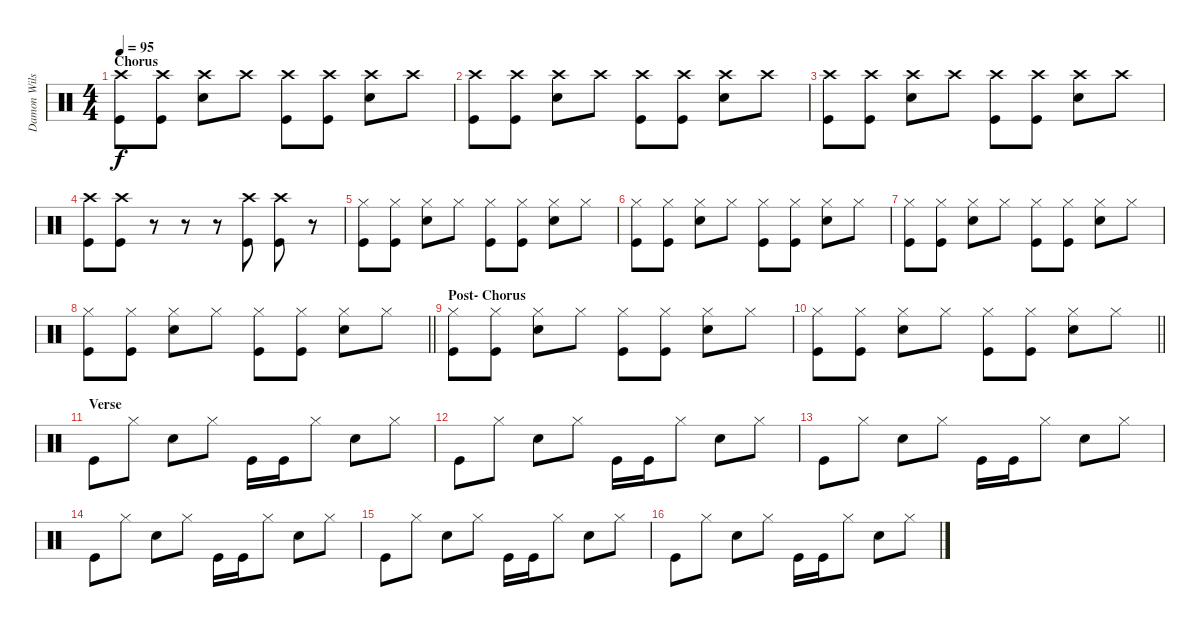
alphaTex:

\track ("Damon Wilson (Drums)" "Damon Wils") {instrument percussion}
\staff {score}
\articulation defaults
\ts (4 4)
\section ("" "Chorus")
\tempo 95
\clef neutral
\ks c
("Crash high (hit)" "Kick (hit)").8{dy f} ("Crash high (hit)" "Kick (hit)").8 ("Crash high (hit)" "Snare (hit) 2").8 "Crash high (hit)".8 ("Crash high (hit)" "Kick (hit)").8 ("Crash high (hit)" "Kick (hit)").8 ("Crash high (hit)" "Snare (hit) 2").8 "Crash high (hit)".8 |
("Crash high (hit)" "Kick (hit)").8 ("Crash high (hit)" "Kick (hit)").8 ("Crash high (hit)" "Snare (hit) 2").8 "Crash high (hit)".8 ("Crash high (hit)" "Kick (hit)").8 ("Crash high (hit)" "Kick (hit)").8 ("Crash high (hit)" "Snare (hit) 2").8 "Crash high (hit)".8 |
("Crash high (hit)" "Kick (hit)").8 ("Crash high (hit)" "Kick (hit)").8 ("Crash high (hit)" "Snare (hit) 2").8 "Crash high (hit)".8 ("Crash high (hit)" "Kick (hit)").8 ("Crash high (hit)" "Kick (hit)").8 ("Crash high (hit)" "Snare (hit) 2").8 "Crash high (hit)".8 |
("Crash high (hit)" "Kick (hit)").8 ("Crash high (hit)" "Kick (hit)").8 r.8 r.8 r.8 ("Crash high (hit)" "Kick (hit)").8 ("Crash high (hit)" "Kick (hit)").8 r.8 |
("Hi-Hat (closed)" "Kick (hit)").8 ("Hi-Hat (closed)" "Kick (hit)").8 ("Hi-Hat (closed)" "Snare (hit) 2").8 "Hi-Hat (closed)".8 ("Hi-Hat (closed)" "Kick (hit)").8 ("Hi-Hat (closed)" "Kick (hit)").8 ("Hi-Hat (closed)" "Snare (hit) 2").8 "Hi-Hat (closed)".8 |
("Hi-Hat (closed)" "Kick (hit)").8 ("Hi-Hat (closed)" "Kick (hit)").8 ("Hi-Hat (closed)" "Snare (hit) 2").8 "Hi-Hat (closed)".8 ("Hi-Hat (closed)" "Kick (hit)").8 ("Hi-Hat (closed)" "Kick (hit)").8 ("Hi-Hat (closed)" "Snare (hit) 2").8 "Hi-Hat (closed)".8 |
("Hi-Hat (closed)" "Kick (hit)").8 ("Hi-Hat (closed)" "Kick (hit)").8 ("Hi-Hat (closed)" "Snare (hit) 2").8 "Hi-Hat (closed)".8 ("Hi-Hat (closed)" "Kick (hit)").8 ("Hi-Hat (closed)" "Kick (hit)").8 ("Hi-Hat (closed)" "Snare (hit) 2").8 "Hi-Hat (closed)".8 |
\barLineRight lightlight
("Hi-Hat (closed)" "Kick (hit)").8 ("Hi-Hat (closed)" "Kick (hit)").8 ("Hi-Hat (closed)" "Snare (hit) 2").8 "Hi-Hat (closed)".8 ("Hi-Hat (closed)" "Kick (hit)").8 ("Hi-Hat (closed)" "Kick (hit)").8 ("Hi-Hat (closed)" "Snare (hit) 2").8 "Hi-Hat (closed)".8 |
\section ("" "Post- Chorus")
("Hi-Hat (closed)" "Kick (hit)").8 ("Hi-Hat (closed)" "Kick (hit)").8 ("Hi-Hat (closed)" "Snare (hit) 2").8 "Hi-Hat (closed)".8 ("Hi-Hat (closed)" "Kick (hit)").8 ("Hi-Hat (closed)" "Kick (hit)").8 ("Hi-Hat (closed)" "Snare (hit) 2").8 "Hi-Hat (closed)".8 |
\barLineRight lightlight
("Hi-Hat (closed)" "Kick (hit)").8 ("Hi-Hat (closed)" "Kick (hit)").8 ("Hi-Hat (closed)" "Snare (hit) 2").8 "Hi-Hat (closed)".8 ("Hi-Hat (closed)" "Kick (hit)").8 ("Hi-Hat (closed)" "Kick (hit)").8 ("Hi-Hat (closed)" "Snare (hit) 2").8 "Hi-Hat (closed)".8 |
\section ("" "Verse")
"Kick (hit)".8 "Hi-Hat (closed)".8 "Snare (hit) 2".8 "Hi-Hat (closed)".8 "Kick (hit)".16 "Kick (hit)".16 "Hi-Hat (closed)".8 "Snare (hit) 2".8 "Hi-Hat (closed)".8 |
"Kick (hit)".8 "Hi-Hat (closed)".8 "Snare (hit) 2".8 "Hi-Hat (closed)".8 "Kick (hit)".16 "Kick (hit)".16 "Hi-Hat (closed)".8 "Snare (hit) 2".8 "Hi-Hat (closed)".8 |
"Kick (hit)".8 "Hi-Hat (closed)".8 "Snare (hit) 2".8 "Hi-Hat (closed)".8 "Kick (hit)".16 "Kick (hit)".16 "Hi-Hat (closed)".8 "Snare (hit) 2".8 "Hi-Hat (closed)".8 |
"Kick (hit)".8 "Hi-Hat (closed)".8 "Snare (hit) 2".8 "Hi-Hat (closed)".8 "Kick (hit)".16 "Kick (hit)".16 "Hi-Hat (closed)".8 "Snare (hit) 2".8 "Hi-Hat (closed)".8 |
"Kick (hit)".8 "Hi-Hat (closed)".8 "Snare (hit) 2".8 "Hi-Hat (closed)".8 "Kick (hit)".16 "Kick (hit)".16 "Hi-Hat (closed)".8 "Snare (hit) 2".8 "Hi-Hat (closed)".8 |
"Kick (hit)".8 "Hi-Hat (closed)".8 "Snare (hit) 2".8 "Hi-Hat (closed)".8 "Kick (hit)".16 "Kick (hit)".16 "Hi-Hat (closed)".8 "Snare (hit) 2".8 "Hi-Hat (closed)".8
